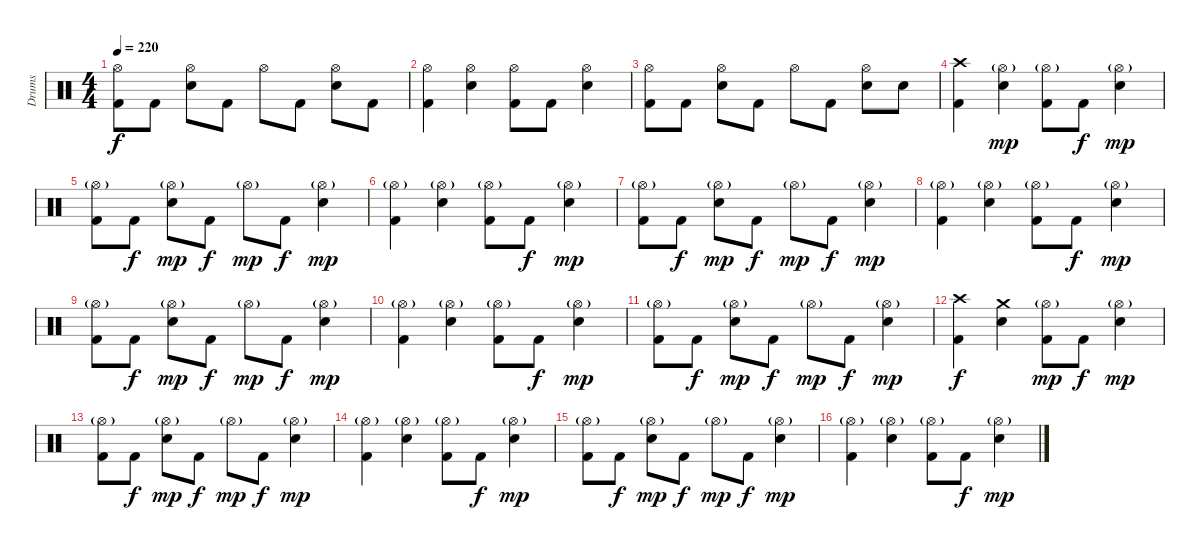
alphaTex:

\track ("Drums" "Drums") {instrument percussion}
\staff {score}
\articulation defaults
\ts (4 4)
\tempo 220
\clef neutral
\ks c
("Hi-Hat (open)" "Kick (hit) 2").8{dy f} "Kick (hit) 2".8 ("Hi-Hat (open)" "Snare (hit) 2").8 "Kick (hit) 2".8 "Hi-Hat (open)".8 "Kick (hit) 2".8 ("Hi-Hat (open)" "Snare (hit) 2").8 "Kick (hit) 2".8 |
("Hi-Hat (open)" "Kick (hit) 2").4 ("Hi-Hat (open)" "Snare (hit) 2").4 ("Hi-Hat (open)" "Kick (hit) 2").8 "Kick (hit) 2".8 ("Hi-Hat (open)" "Snare (hit) 2").4 |
("Hi-Hat (open)" "Kick (hit) 2").8 "Kick (hit) 2".8 ("Hi-Hat (open)" "Snare (hit) 2").8 "Kick (hit) 2".8 "Hi-Hat (open)".8 "Kick (hit) 2".8 ("Hi-Hat (open)" "Snare (hit) 2").8 "Snare (hit) 2".8 |
("Crash high (hit)" "Kick (hit) 2").4 ("Hi-Hat (open)"{g} "Snare (hit) 2").4{dy mp} ("Hi-Hat (open)"{g} "Kick (hit) 2").8 "Kick (hit) 2".8{dy f} ("Hi-Hat (open)"{g} "Snare (hit) 2").4{dy mp} |
("Hi-Hat (open)"{g} "Kick (hit) 2").8 "Kick (hit) 2".8{dy f} ("Hi-Hat (open)"{g} "Snare (hit) 2").8{dy mp} "Kick (hit) 2".8{dy f} "Hi-Hat (open)"{g}.8{dy mp} "Kick (hit) 2".8{dy f} ("Hi-Hat (open)"{g} "Snare (hit) 2").4{dy mp} |
("Hi-Hat (open)"{g} "Kick (hit) 2").4 ("Hi-Hat (open)"{g} "Snare (hit) 2").4 ("Hi-Hat (open)"{g} "Kick (hit) 2").8 "Kick (hit) 2".8{dy f} ("Hi-Hat (open)"{g} "Snare (hit) 2").4{dy mp} |
("Hi-Hat (open)"{g} "Kick (hit) 2").8 "Kick (hit) 2".8{dy f} ("Hi-Hat (open)"{g} "Snare (hit) 2").8{dy mp} "Kick (hit) 2".8{dy f} "Hi-Hat (open)"{g}.8{dy mp} "Kick (hit) 2".8{dy f} ("Hi-Hat (open)"{g} "Snare (hit) 2").4{dy mp} |
("Hi-Hat (open)"{g} "Kick (hit) 2").4 ("Hi-Hat (open)"{g} "Snare (hit) 2").4 ("Hi-Hat (open)"{g} "Kick (hit) 2").8 "Kick (hit) 2".8{dy f} ("Hi-Hat (open)"{g} "Snare (hit) 2").4{dy mp} |
("Hi-Hat (open)"{g} "Kick (hit) 2").8 "Kick (hit) 2".8{dy f} ("Hi-Hat (open)"{g} "Snare (hit) 2").8{dy mp} "Kick (hit) 2".8{dy f} "Hi-Hat (open)"{g}.8{dy mp} "Kick (hit) 2".8{dy f} ("Hi-Hat (open)"{g} "Snare (hit) 2").4{dy mp} |
("Hi-Hat (open)"{g} "Kick (hit) 2").4 ("Hi-Hat (open)"{g} "Snare (hit) 2").4 ("Hi-Hat (open)"{g} "Kick (hit) 2").8 "Kick (hit) 2".8{dy f} ("Hi-Hat (open)"{g} "Snare (hit) 2").4{dy mp} |
("Hi-Hat (open)"{g} "Kick (hit) 2").8 "Kick (hit) 2".8{dy f} ("Hi-Hat (open)"{g} "Snare (hit) 2").8{dy mp} "Kick (hit) 2".8{dy f} "Hi-Hat (open)"{g}.8{dy mp} "Kick (hit) 2".8{dy f} ("Hi-Hat (open)"{g} "Snare (hit) 2").4{dy mp} |
("Crash high (hit)" "Kick (hit) 2").4{dy f} ("Crash medium (hit)" "Snare (hit) 2").4 ("Hi-Hat (open)"{g} "Kick (hit) 2").8{dy mp} "Kick (hit) 2".8{dy f} ("Hi-Hat (open)"{g} "Snare (hit) 2").4{dy mp} |
("Hi-Hat (open)"{g} "Kick (hit) 2").8 "Kick (hit) 2".8{dy f} ("Hi-Hat (open)"{g} "Snare (hit) 2").8{dy mp} "Kick (hit) 2".8{dy f} "Hi-Hat (open)"{g}.8{dy mp} "Kick (hit) 2".8{dy f} ("Hi-Hat (open)"{g} "Snare (hit) 2").4{dy mp} |
("Hi-Hat (open)"{g} "Kick (hit) 2").4 ("Hi-Hat (open)"{g} "Snare (hit) 2").4 ("Hi-Hat (open)"{g} "Kick (hit) 2").8 "Kick (hit) 2".8{dy f} ("Hi-Hat (open)"{g} "Snare (hit) 2").4{dy mp} |
("Hi-Hat (open)"{g} "Kick (hit) 2").8 "Kick (hit) 2".8{dy f} ("Hi-Hat (open)"{g} "Snare (hit) 2").8{dy mp} "Kick (hit) 2".8{dy f} "Hi-Hat (open)"{g}.8{dy mp} "Kick (hit) 2".8{dy f} ("Hi-Hat (open)"{g} "Snare (hit) 2").4{dy mp} |
("Hi-Hat (open)"{g} "Kick (hit) 2").4 ("Hi-Hat (open)"{g} "Snare (hit) 2").4 ("Hi-Hat (open)"{g} "Kick (hit) 2").8 "Kick (hit) 2".8{dy f} ("Hi-Hat (open)"{g} "Snare (hit) 2").4{dy mp}
